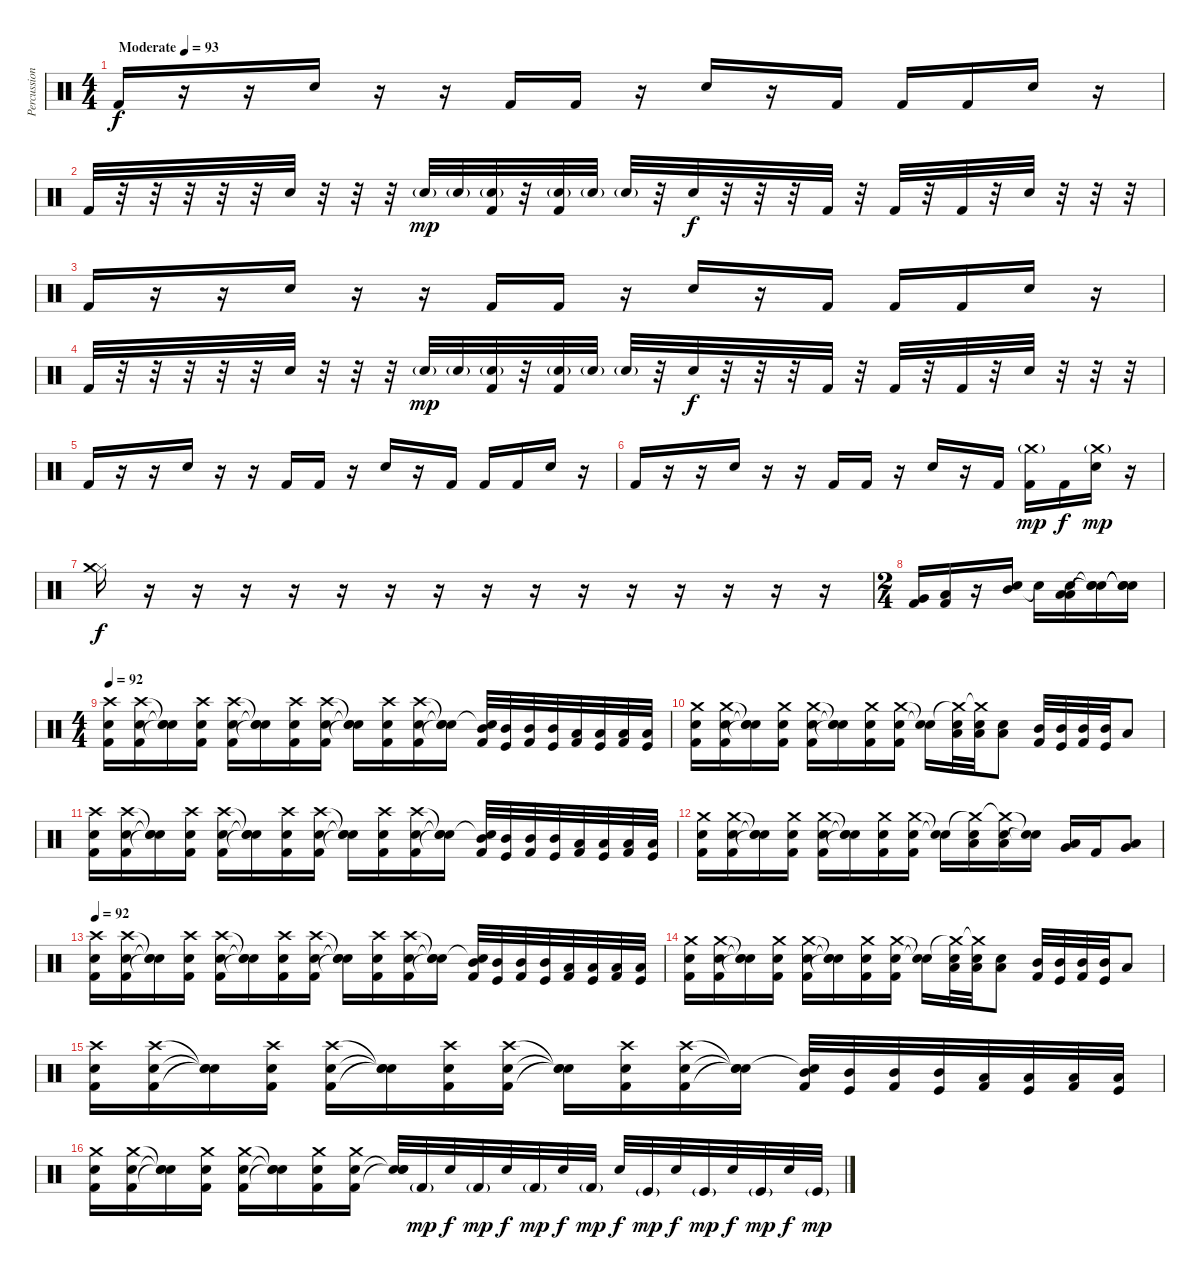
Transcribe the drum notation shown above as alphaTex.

\track ("Percussion" "Percussion") {instrument percussion}
\staff {score}
\articulation defaults
\ts (4 4)
\tempo (93 "Moderate")
\clef neutral
\ks c "Kick (hit) 2".16{dy f}
r.16 r.16 "Snare (hit) 2".16 r.16 r.16 "Kick (hit) 2".16 "Kick (hit) 2".16 r.16 "Snare (hit) 2".16 r.16 "Kick (hit) 2".16 "Kick (hit) 2".16 "Kick (hit) 2".16 "Snare (hit) 2".16 r.16 |
"Kick (hit) 2".32 r.32 r.32 r.32 r.32 r.32 "Snare (hit) 2".32 r.32 r.32 r.32 "Snare (hit) 2"{g}.32{dy mp} "Snare (hit) 2"{g}.32 ("Snare (hit) 2"{g} "Kick (hit) 2").32 r.32 ("Snare (hit) 2"{g} "Kick (hit) 2").32 "Snare (hit) 2"{g}.32 "Snare (hit) 2"{g}.32 r.32 "Snare (hit) 2".32{dy f} r.32 r.32 r.32 "Kick (hit) 2".32 r.32 "Kick (hit) 2".32 r.32 "Kick (hit) 2".32 r.32 "Snare (hit) 2".32 r.32 r.32 r.32 |
"Kick (hit) 2".16 r.16 r.16 "Snare (hit) 2".16 r.16 r.16 "Kick (hit) 2".16 "Kick (hit) 2".16 r.16 "Snare (hit) 2".16 r.16 "Kick (hit) 2".16 "Kick (hit) 2".16 "Kick (hit) 2".16 "Snare (hit) 2".16 r.16 |
"Kick (hit) 2".32 r.32 r.32 r.32 r.32 r.32 "Snare (hit) 2".32 r.32 r.32 r.32 "Snare (hit) 2"{g}.32{dy mp} "Snare (hit) 2"{g}.32 ("Snare (hit) 2"{g} "Kick (hit) 2").32 r.32 ("Snare (hit) 2"{g} "Kick (hit) 2").32 "Snare (hit) 2"{g}.32 "Snare (hit) 2"{g}.32 r.32 "Snare (hit) 2".32{dy f} r.32 r.32 r.32 "Kick (hit) 2".32 r.32 "Kick (hit) 2".32 r.32 "Kick (hit) 2".32 r.32 "Snare (hit) 2".32 r.32 r.32 r.32 |
"Kick (hit) 2".16 r.16 r.16 "Snare (hit) 2".16 r.16 r.16 "Kick (hit) 2".16 "Kick (hit) 2".16 r.16 "Snare (hit) 2".16 r.16 "Kick (hit) 2".16 "Kick (hit) 2".16 "Kick (hit) 2".16 "Snare (hit) 2".16 r.16 |
"Kick (hit) 2".16 r.16 r.16 "Snare (hit) 2".16 r.16 r.16 "Kick (hit) 2".16 "Kick (hit) 2".16 r.16 "Snare (hit) 2".16 r.16 "Kick (hit) 2".16 ("Crash medium (hit)"{g} "Kick (hit) 2").16{dy mp} "Kick (hit) 2".16{dy f} ("Crash medium (hit)"{g} "Snare (hit) 2").16{dy mp} r.16 |
("Hi-Hat (closed)" "Crash medium (hit)").16{dy f} r.16 r.16 r.16 r.16 r.16 r.16 r.16 r.16 r.16 r.16 r.16 r.16 r.16 r.16 r.16 |
\ts (2 4)
("Very Low Tom (hit)" "Kick (hit) 2").16 ("Low Tom (hit)" "Kick (hit) 2").16 r.16 ("Mid Tom (hit)" "Snare (hit) 2").16 "Snare (hit)"{t}.16 ("Low Floor Tom (hit)" "Low Tom (hit)" "Snare (hit) 2").16 ("Snare (hit)"{t} "Snare (hit)"{t} "Snare (hit)"{t}).16 ("Snare (hit)"{t} "Snare (hit)"{t} "Snare (hit)"{t}).16 |
\ts (4 4)
\tempo 92
("Crash high (hit)" "Snare (hit) 2" "Kick (hit) 2").16 ("Crash high (hit)" "Snare (hit) 2" "Kick (hit) 2").16 ("Snare (hit)"{t} "Snare (hit)"{t} "Snare (hit)"{t}).16 ("Crash high (hit)" "Snare (hit) 2" "Kick (hit) 2").16 ("Crash high (hit)" "Snare (hit) 2" "Kick (hit) 2").16 ("Snare (hit)"{t} "Snare (hit)"{t} "Snare (hit)"{t}).16 ("Crash high (hit)" "Snare (hit) 2" "Kick (hit) 2").16 ("Crash high (hit)" "Snare (hit) 2" "Kick (hit) 2").16 ("Snare (hit)"{t} "Snare (hit)"{t} "Snare (hit)"{t}).16 ("Crash high (hit)" "Snare (hit) 2" "Kick (hit) 2").16 ("Crash high (hit)" "Snare (hit) 2" "Kick (hit) 2").16 ("Snare (hit)"{t} "Snare (hit)"{t} "Snare (hit)"{t}).16 ("Snare (hit)"{t} "Mid Tom (hit)" "Kick (hit) 2").32 ("Mid Tom (hit)" "Kick (hit)").32 ("Mid Tom (hit)" "Kick (hit) 2").32 ("Mid Tom (hit)" "Kick (hit)").32 ("Low Tom (hit)" "Kick (hit) 2").32 ("Low Tom (hit)" "Kick (hit)").32 ("Low Tom (hit)" "Kick (hit) 2").32 ("Low Tom (hit)" "Kick (hit)").32 |
("Crash medium (hit)" "Snare (hit) 2" "Kick (hit) 2").16 ("Crash medium (hit)" "Snare (hit) 2" "Kick (hit) 2").16 ("Snare (hit)"{t} "Snare (hit)"{t} "Snare (hit)"{t}).16 ("Crash medium (hit)" "Snare (hit) 2" "Kick (hit) 2").16 ("Crash medium (hit)" "Snare (hit) 2" "Kick (hit) 2").16 ("Snare (hit)"{t} "Snare (hit)"{t} "Snare (hit)"{t}).16 ("Crash medium (hit)" "Snare (hit) 2" "Kick (hit) 2").16 ("Crash medium (hit)" "Snare (hit) 2" "Kick (hit) 2").16 ("Snare (hit)"{t} "Snare (hit)"{t}).16 ("Crash medium (hit)"{t} "Low Tom (hit)" "Snare (hit) 2").32 ("Crash medium (hit)"{t} "Low Tom (hit)" "Snare (hit) 2").32 ("Low Tom (hit)" "Snare (hit) 2").8 ("Mid Tom (hit)" "Kick (hit) 2").32 ("Mid Tom (hit)" "Kick (hit)").32 ("Mid Tom (hit)" "Kick (hit) 2").32 ("Mid Tom (hit)" "Kick (hit)").32 "Low Tom (hit)".8 |
("Crash high (hit)" "Snare (hit) 2" "Kick (hit) 2").16 ("Crash high (hit)" "Snare (hit) 2" "Kick (hit) 2").16 ("Snare (hit)"{t} "Snare (hit)"{t} "Snare (hit)"{t}).16 ("Crash high (hit)" "Snare (hit) 2" "Kick (hit) 2").16 ("Crash high (hit)" "Snare (hit) 2" "Kick (hit) 2").16 ("Snare (hit)"{t} "Snare (hit)"{t} "Snare (hit)"{t}).16 ("Crash high (hit)" "Snare (hit) 2" "Kick (hit) 2").16 ("Crash high (hit)" "Snare (hit) 2" "Kick (hit) 2").16 ("Snare (hit)"{t} "Snare (hit)"{t} "Snare (hit)"{t}).16 ("Crash high (hit)" "Snare (hit) 2" "Kick (hit) 2").16 ("Crash high (hit)" "Snare (hit) 2" "Kick (hit) 2").16 ("Snare (hit)"{t} "Snare (hit)"{t} "Snare (hit)"{t}).16 ("Snare (hit)"{t} "Mid Tom (hit)" "Kick (hit) 2").32 ("Mid Tom (hit)" "Kick (hit)").32 ("Mid Tom (hit)" "Kick (hit) 2").32 ("Mid Tom (hit)" "Kick (hit)").32 ("Low Tom (hit)" "Kick (hit) 2").32 ("Low Tom (hit)" "Kick (hit)").32 ("Low Tom (hit)" "Kick (hit) 2").32 ("Low Tom (hit)" "Kick (hit)").32 |
("Crash medium (hit)" "Snare (hit) 2" "Kick (hit) 2").16 ("Crash medium (hit)" "Snare (hit) 2" "Kick (hit) 2").16 ("Snare (hit)"{t} "Snare (hit)"{t} "Snare (hit)"{t}).16 ("Crash medium (hit)" "Snare (hit) 2" "Kick (hit) 2").16 ("Crash medium (hit)" "Snare (hit) 2" "Kick (hit) 2").16 ("Snare (hit)"{t} "Snare (hit)"{t} "Snare (hit)"{t}).16 ("Crash medium (hit)" "Snare (hit) 2" "Kick (hit) 2").16 ("Crash medium (hit)" "Snare (hit) 2" "Kick (hit) 2").16 ("Snare (hit)"{t} "Snare (hit)"{t}).16 ("Crash medium (hit)"{t} "Low Tom (hit)" "Snare (hit) 2").16 ("Crash medium (hit)"{t} "Low Tom (hit)" "Snare (hit) 2").16 ("Snare (hit)"{t} "Snare (hit)"{t}).16 ("Very Low Tom (hit)" "Low Tom (hit)").16 "Kick (hit) 2".16 ("Very Low Tom (hit)" "Low Tom (hit)").8 |
\tempo 92
("Crash high (hit)" "Snare (hit) 2" "Kick (hit) 2").16 ("Crash high (hit)" "Snare (hit) 2" "Kick (hit) 2").16 ("Snare (hit)"{t} "Snare (hit)"{t} "Snare (hit)"{t}).16 ("Crash high (hit)" "Snare (hit) 2" "Kick (hit) 2").16 ("Crash high (hit)" "Snare (hit) 2" "Kick (hit) 2").16 ("Snare (hit)"{t} "Snare (hit)"{t} "Snare (hit)"{t}).16 ("Crash high (hit)" "Snare (hit) 2" "Kick (hit) 2").16 ("Crash high (hit)" "Snare (hit) 2" "Kick (hit) 2").16 ("Snare (hit)"{t} "Snare (hit)"{t} "Snare (hit)"{t}).16 ("Crash high (hit)" "Snare (hit) 2" "Kick (hit) 2").16 ("Crash high (hit)" "Snare (hit) 2" "Kick (hit) 2").16 ("Snare (hit)"{t} "Snare (hit)"{t} "Snare (hit)"{t}).16 ("Snare (hit)"{t} "Mid Tom (hit)" "Kick (hit) 2").32 ("Mid Tom (hit)" "Kick (hit)").32 ("Mid Tom (hit)" "Kick (hit) 2").32 ("Mid Tom (hit)" "Kick (hit)").32 ("Low Tom (hit)" "Kick (hit) 2").32 ("Low Tom (hit)" "Kick (hit)").32 ("Low Tom (hit)" "Kick (hit) 2").32 ("Low Tom (hit)" "Kick (hit)").32 |
("Crash medium (hit)" "Snare (hit) 2" "Kick (hit) 2").16 ("Crash medium (hit)" "Snare (hit) 2" "Kick (hit) 2").16 ("Snare (hit)"{t} "Snare (hit)"{t} "Snare (hit)"{t}).16 ("Crash medium (hit)" "Snare (hit) 2" "Kick (hit) 2").16 ("Crash medium (hit)" "Snare (hit) 2" "Kick (hit) 2").16 ("Snare (hit)"{t} "Snare (hit)"{t} "Snare (hit)"{t}).16 ("Crash medium (hit)" "Snare (hit) 2" "Kick (hit) 2").16 ("Crash medium (hit)" "Snare (hit) 2" "Kick (hit) 2").16 ("Snare (hit)"{t} "Snare (hit)"{t}).16 ("Crash medium (hit)"{t} "Low Tom (hit)" "Snare (hit) 2").32 ("Crash medium (hit)"{t} "Low Tom (hit)" "Snare (hit) 2").32 ("Low Tom (hit)" "Snare (hit) 2").8 ("Mid Tom (hit)" "Kick (hit) 2").32 ("Mid Tom (hit)" "Kick (hit)").32 ("Mid Tom (hit)" "Kick (hit) 2").32 ("Mid Tom (hit)" "Kick (hit)").32 "Low Tom (hit)".8 |
("Crash high (hit)" "Snare (hit) 2" "Kick (hit) 2").16 ("Crash high (hit)" "Snare (hit) 2" "Kick (hit) 2").16 ("Snare (hit)"{t} "Snare (hit)"{t} "Snare (hit)"{t}).16 ("Crash high (hit)" "Snare (hit) 2" "Kick (hit) 2").16 ("Crash high (hit)" "Snare (hit) 2" "Kick (hit) 2").16 ("Snare (hit)"{t} "Snare (hit)"{t} "Snare (hit)"{t}).16 ("Crash high (hit)" "Snare (hit) 2" "Kick (hit) 2").16 ("Crash high (hit)" "Snare (hit) 2" "Kick (hit) 2").16 ("Snare (hit)"{t} "Snare (hit)"{t} "Snare (hit)"{t}).16 ("Crash high (hit)" "Snare (hit) 2" "Kick (hit) 2").16 ("Crash high (hit)" "Snare (hit) 2" "Kick (hit) 2").16 ("Snare (hit)"{t} "Snare (hit)"{t} "Snare (hit)"{t}).16 ("Snare (hit)"{t} "Mid Tom (hit)" "Kick (hit) 2").32 ("Mid Tom (hit)" "Kick (hit)").32 ("Mid Tom (hit)" "Kick (hit) 2").32 ("Mid Tom (hit)" "Kick (hit)").32 ("Low Tom (hit)" "Kick (hit) 2").32 ("Low Tom (hit)" "Kick (hit)").32 ("Low Tom (hit)" "Kick (hit) 2").32 ("Low Tom (hit)" "Kick (hit)").32 |
("Crash medium (hit)" "Snare (hit) 2" "Kick (hit) 2").16 ("Crash medium (hit)" "Snare (hit) 2" "Kick (hit) 2").16 ("Snare (hit)"{t} "Snare (hit)"{t} "Snare (hit)"{t}).16 ("Crash medium (hit)" "Snare (hit) 2" "Kick (hit) 2").16 ("Crash medium (hit)" "Snare (hit) 2" "Kick (hit) 2").16 ("Snare (hit)"{t} "Snare (hit)"{t} "Snare (hit)"{t}).16 ("Crash medium (hit)" "Snare (hit) 2" "Kick (hit) 2").16 ("Crash medium (hit)" "Snare (hit) 2" "Kick (hit) 2").16 ("Snare (hit) 2" "Snare (hit)"{t} "Snare (hit)"{t}).32 "Kick (hit) 2"{g}.32{dy mp} "Snare (hit) 2".32{dy f} "Kick (hit) 2"{g}.32{dy mp} "Snare (hit) 2".32{dy f} "Kick (hit) 2"{g}.32{dy mp} "Snare (hit) 2".32{dy f} "Kick (hit) 2"{g}.32{dy mp} "Snare (hit) 2".32{dy f} "Kick (hit)"{g}.32{dy mp} "Snare (hit) 2".32{dy f} "Kick (hit)"{g}.32{dy mp} "Snare (hit) 2".32{dy f} "Kick (hit)"{g}.32{dy mp} "Snare (hit) 2".32{dy f} "Kick (hit)"{g}.32{dy mp}
